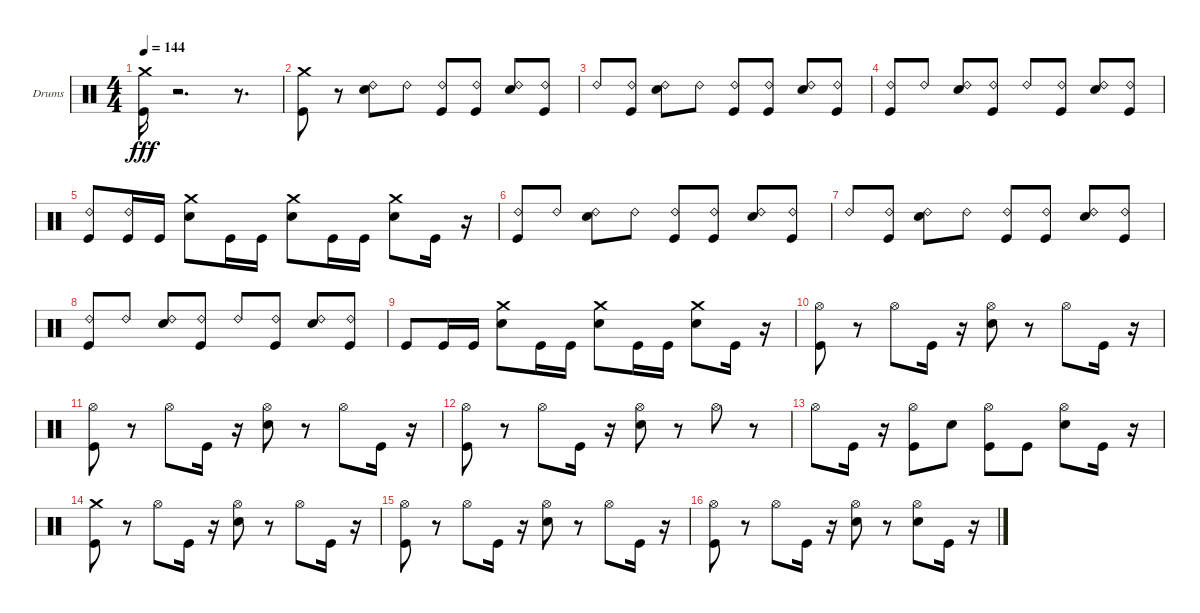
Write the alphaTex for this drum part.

\bracketExtendMode groupsimilarinstruments
\firstSystemTrackNameOrientation horizontal
\otherSystemsTrackNameOrientation horizontal
\track ("Drumkit" "Drums") {instrument percussion}
\staff {score}
\articulation defaults
\ts (4 4)
\tempo 144
\clef neutral
\ks c
("Crash medium (hit)" "Kick (hit)").16{dy fff} r.2{d} r.8{d} |
("Crash medium (hit)" "Kick (hit)").8 r.8 ("Ride (bell) 2" "Snare (hit) 2").8 "Ride (bell) 2".8 ("Ride (bell) 2" "Kick (hit)").8 ("Ride (bell) 2" "Kick (hit)").8 ("Ride (bell) 2" "Snare (hit) 2").8 ("Ride (bell) 2" "Kick (hit)").8 |
"Ride (bell) 2".8 ("Ride (bell) 2" "Kick (hit)").8 ("Ride (bell) 2" "Snare (hit) 2").8 "Ride (bell) 2".8 ("Ride (bell) 2" "Kick (hit)").8 ("Ride (bell) 2" "Kick (hit)").8 ("Ride (bell) 2" "Snare (hit) 2").8 ("Ride (bell) 2" "Kick (hit)").8 |
("Ride (bell) 2" "Kick (hit)").8 "Ride (bell) 2".8 ("Ride (bell) 2" "Snare (hit) 2").8 ("Ride (bell) 2" "Kick (hit)").8 "Ride (bell) 2".8 ("Ride (bell) 2" "Kick (hit)").8 ("Ride (bell) 2" "Snare (hit) 2").8 ("Ride (bell) 2" "Kick (hit)").8 |
("Ride (bell) 2" "Kick (hit)").8 ("Ride (bell) 2" "Kick (hit)").16 "Kick (hit)".16 ("Snare (hit) 2" "Crash medium (hit)").8 "Kick (hit)".16 "Kick (hit)".16 ("Snare (hit) 2" "Crash medium (hit)").8 "Kick (hit)".16 "Kick (hit)".16 ("Snare (hit) 2" "Crash medium (hit)").8 "Kick (hit)".16 r.16 |
("Ride (bell) 2" "Kick (hit)").8 "Ride (bell) 2".8 ("Ride (bell) 2" "Snare (hit) 2").8 "Ride (bell) 2".8 ("Ride (bell) 2" "Kick (hit)").8 ("Ride (bell) 2" "Kick (hit)").8 ("Ride (bell) 2" "Snare (hit) 2").8 ("Ride (bell) 2" "Kick (hit)").8 |
"Ride (bell) 2".8 ("Ride (bell) 2" "Kick (hit)").8 ("Ride (bell) 2" "Snare (hit) 2").8 "Ride (bell) 2".8 ("Ride (bell) 2" "Kick (hit)").8 ("Ride (bell) 2" "Kick (hit)").8 ("Ride (bell) 2" "Snare (hit) 2").8 ("Ride (bell) 2" "Kick (hit)").8 |
("Kick (hit)" "Ride (bell) 2").8 "Ride (bell) 2".8 ("Snare (hit) 2" "Ride (bell) 2").8 ("Kick (hit)" "Ride (bell) 2").8 "Ride (bell) 2".8 ("Kick (hit)" "Ride (bell) 2").8 ("Snare (hit) 2" "Ride (bell) 2").8 ("Kick (hit)" "Ride (bell) 2").8 |
"Kick (hit)".8 "Kick (hit)".16 "Kick (hit)".16 ("Snare (hit) 2" "Crash medium (hit)").8 "Kick (hit)".16 "Kick (hit)".16 ("Snare (hit) 2" "Crash medium (hit)").8 "Kick (hit)".16 "Kick (hit)".16 ("Snare (hit) 2" "Crash medium (hit)").8 "Kick (hit)".16 r.16 |
("Kick (hit)" "Hi-Hat (open)").8 r.8 "Hi-Hat (open)".8 "Kick (hit)".16 r.16 ("Snare (hit) 2" "Hi-Hat (open)").8 r.8 "Hi-Hat (open)".8 "Kick (hit)".16 r.16 |
("Kick (hit)" "Hi-Hat (open)").8 r.8 "Hi-Hat (open)".8 "Kick (hit)".16 r.16 ("Snare (hit) 2" "Hi-Hat (open)").8 r.8 "Hi-Hat (open)".8 "Kick (hit)".16 r.16 |
("Kick (hit)" "Hi-Hat (open)").8 r.8 "Hi-Hat (open)".8 "Kick (hit)".16 r.16 ("Snare (hit) 2" "Hi-Hat (open)").8 r.8 "Hi-Hat (open)".8 r.8 |
"Hi-Hat (open)".8 "Kick (hit)".16 r.16 ("Kick (hit)" "Hi-Hat (open)").8 "Snare (hit) 2".8 ("Kick (hit)" "Hi-Hat (open)").8 "Kick (hit)".8 ("Snare (hit) 2" "Hi-Hat (open)").8 "Kick (hit)".16 r.16 |
("Kick (hit)" "Crash medium (hit)").8 r.8 "Hi-Hat (open)".8 "Kick (hit)".16 r.16 ("Snare (hit) 2" "Hi-Hat (open)").8 r.8 "Hi-Hat (open)".8 "Kick (hit)".16 r.16 |
("Kick (hit)" "Hi-Hat (open)").8 r.8 "Hi-Hat (open)".8 "Kick (hit)".16 r.16 ("Snare (hit) 2" "Hi-Hat (open)").8 r.8 "Hi-Hat (open)".8 "Kick (hit)".16 r.16 |
("Kick (hit)" "Hi-Hat (open)").8 r.8 "Hi-Hat (open)".8 "Kick (hit)".16 r.16 ("Snare (hit) 2" "Hi-Hat (open)").8 r.8 ("Hi-Hat (open)" "Snare (hit) 2").8 "Kick (hit)".16 r.16
